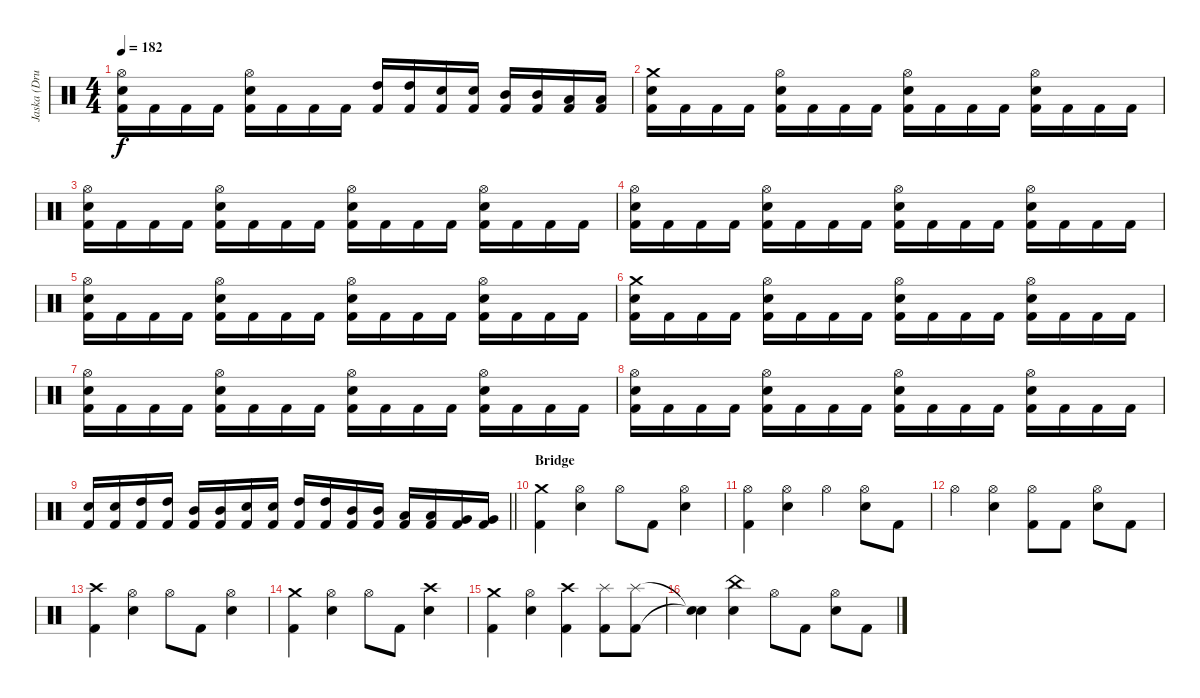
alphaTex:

\track ("Jaska (Drums)" "Jaska (Dru") {instrument percussion}
\staff {score}
\articulation defaults
\ts (4 4)
\tempo 182
\clef neutral
\ks c
("Hi-Hat (open)" "Electric Snare (hit)" "Kick (hit) 2").16{dy f} "Kick (hit) 2".16 "Kick (hit) 2".16 "Kick (hit) 2".16 ("Hi-Hat (open)" "Electric Snare (hit)" "Kick (hit) 2").16 "Kick (hit) 2".16 "Kick (hit) 2".16 "Kick (hit) 2".16 ("High Tom (hit)" "Kick (hit) 2").16 ("High Tom (hit)" "Kick (hit) 2").16 ("Electric Snare (hit)" "Kick (hit) 2").16 ("Electric Snare (hit)" "Kick (hit) 2").16 ("Mid Tom (hit)" "Kick (hit) 2").16 ("Mid Tom (hit)" "Kick (hit) 2").16 ("Low Tom (hit)" "Kick (hit) 2").16 ("Low Tom (hit)" "Kick (hit) 2").16 |
("Crash medium (hit)" "Electric Snare (hit)" "Kick (hit) 2").16 "Kick (hit) 2".16 "Kick (hit) 2".16 "Kick (hit) 2".16 ("Hi-Hat (open)" "Electric Snare (hit)" "Kick (hit) 2").16 "Kick (hit) 2".16 "Kick (hit) 2".16 "Kick (hit) 2".16 ("Hi-Hat (open)" "Electric Snare (hit)" "Kick (hit) 2").16 "Kick (hit) 2".16 "Kick (hit) 2".16 "Kick (hit) 2".16 ("Hi-Hat (open)" "Electric Snare (hit)" "Kick (hit) 2").16 "Kick (hit) 2".16 "Kick (hit) 2".16 "Kick (hit) 2".16 |
("Hi-Hat (open)" "Electric Snare (hit)" "Kick (hit) 2").16 "Kick (hit) 2".16 "Kick (hit) 2".16 "Kick (hit) 2".16 ("Hi-Hat (open)" "Electric Snare (hit)" "Kick (hit) 2").16 "Kick (hit) 2".16 "Kick (hit) 2".16 "Kick (hit) 2".16 ("Hi-Hat (open)" "Electric Snare (hit)" "Kick (hit) 2").16 "Kick (hit) 2".16 "Kick (hit) 2".16 "Kick (hit) 2".16 ("Hi-Hat (open)" "Electric Snare (hit)" "Kick (hit) 2").16 "Kick (hit) 2".16 "Kick (hit) 2".16 "Kick (hit) 2".16 |
("Hi-Hat (open)" "Electric Snare (hit)" "Kick (hit) 2").16 "Kick (hit) 2".16 "Kick (hit) 2".16 "Kick (hit) 2".16 ("Hi-Hat (open)" "Electric Snare (hit)" "Kick (hit) 2").16 "Kick (hit) 2".16 "Kick (hit) 2".16 "Kick (hit) 2".16 ("Hi-Hat (open)" "Electric Snare (hit)" "Kick (hit) 2").16 "Kick (hit) 2".16 "Kick (hit) 2".16 "Kick (hit) 2".16 ("Hi-Hat (open)" "Electric Snare (hit)" "Kick (hit) 2").16 "Kick (hit) 2".16 "Kick (hit) 2".16 "Kick (hit) 2".16 |
("Hi-Hat (open)" "Electric Snare (hit)" "Kick (hit) 2").16 "Kick (hit) 2".16 "Kick (hit) 2".16 "Kick (hit) 2".16 ("Hi-Hat (open)" "Electric Snare (hit)" "Kick (hit) 2").16 "Kick (hit) 2".16 "Kick (hit) 2".16 "Kick (hit) 2".16 ("Hi-Hat (open)" "Electric Snare (hit)" "Kick (hit) 2").16 "Kick (hit) 2".16 "Kick (hit) 2".16 "Kick (hit) 2".16 ("Hi-Hat (open)" "Electric Snare (hit)" "Kick (hit) 2").16 "Kick (hit) 2".16 "Kick (hit) 2".16 "Kick (hit) 2".16 |
("Crash medium (hit)" "Electric Snare (hit)" "Kick (hit) 2").16 "Kick (hit) 2".16 "Kick (hit) 2".16 "Kick (hit) 2".16 ("Hi-Hat (open)" "Electric Snare (hit)" "Kick (hit) 2").16 "Kick (hit) 2".16 "Kick (hit) 2".16 "Kick (hit) 2".16 ("Hi-Hat (open)" "Electric Snare (hit)" "Kick (hit) 2").16 "Kick (hit) 2".16 "Kick (hit) 2".16 "Kick (hit) 2".16 ("Hi-Hat (open)" "Electric Snare (hit)" "Kick (hit) 2").16 "Kick (hit) 2".16 "Kick (hit) 2".16 "Kick (hit) 2".16 |
("Hi-Hat (open)" "Electric Snare (hit)" "Kick (hit) 2").16 "Kick (hit) 2".16 "Kick (hit) 2".16 "Kick (hit) 2".16 ("Hi-Hat (open)" "Electric Snare (hit)" "Kick (hit) 2").16 "Kick (hit) 2".16 "Kick (hit) 2".16 "Kick (hit) 2".16 ("Hi-Hat (open)" "Electric Snare (hit)" "Kick (hit) 2").16 "Kick (hit) 2".16 "Kick (hit) 2".16 "Kick (hit) 2".16 ("Hi-Hat (open)" "Electric Snare (hit)" "Kick (hit) 2").16 "Kick (hit) 2".16 "Kick (hit) 2".16 "Kick (hit) 2".16 |
("Hi-Hat (open)" "Electric Snare (hit)" "Kick (hit) 2").16 "Kick (hit) 2".16 "Kick (hit) 2".16 "Kick (hit) 2".16 ("Hi-Hat (open)" "Electric Snare (hit)" "Kick (hit) 2").16 "Kick (hit) 2".16 "Kick (hit) 2".16 "Kick (hit) 2".16 ("Hi-Hat (open)" "Electric Snare (hit)" "Kick (hit) 2").16 "Kick (hit) 2".16 "Kick (hit) 2".16 "Kick (hit) 2".16 ("Hi-Hat (open)" "Electric Snare (hit)" "Kick (hit) 2").16 "Kick (hit) 2".16 "Kick (hit) 2".16 "Kick (hit) 2".16 |
\barLineRight lightlight
("Electric Snare (hit)" "Kick (hit) 2").16 ("Electric Snare (hit)" "Kick (hit) 2").16 ("High Tom (hit)" "Kick (hit) 2").16 ("High Tom (hit)" "Kick (hit) 2").16 ("Mid Tom (hit)" "Kick (hit) 2").16 ("Mid Tom (hit)" "Kick (hit) 2").16 ("Electric Snare (hit)" "Kick (hit) 2").16 ("Electric Snare (hit)" "Kick (hit) 2").16 ("High Tom (hit)" "Kick (hit) 2").16 ("High Tom (hit)" "Kick (hit) 2").16 ("Mid Tom (hit)" "Kick (hit) 2").16 ("Mid Tom (hit)" "Kick (hit) 2").16 ("Low Tom (hit)" "Kick (hit) 2").16 ("Low Tom (hit)" "Kick (hit) 2").16 ("Very Low Tom (hit)" "Kick (hit) 2").16 ("Very Low Tom (hit)" "Kick (hit) 2").16 |
\section ("" "Bridge")
("Crash medium (hit)" "Kick (hit) 2").4 ("Hi-Hat (open)" "Electric Snare (hit)").4 "Hi-Hat (open)".8 "Kick (hit) 2".8 ("Hi-Hat (open)" "Electric Snare (hit)").4 |
("Hi-Hat (open)" "Kick (hit) 2").4 ("Hi-Hat (open)" "Electric Snare (hit)").4 "Hi-Hat (open)".4 ("Hi-Hat (open)" "Electric Snare (hit)").8 "Kick (hit) 2".8 |
"Hi-Hat (open)".4 ("Hi-Hat (open)" "Electric Snare (hit)").4 ("Hi-Hat (open)" "Kick (hit) 2").8 "Kick (hit) 2".8 ("Hi-Hat (open)" "Electric Snare (hit)").8 "Kick (hit) 2".8 |
("Crash high (hit)" "Kick (hit) 2").4 ("Hi-Hat (open)" "Electric Snare (hit)").4 "Hi-Hat (open)".8 "Kick (hit) 2".8 ("Hi-Hat (open)" "Electric Snare (hit)").4 |
("Crash medium (hit)" "Kick (hit) 2").4 ("Hi-Hat (open)" "Electric Snare (hit)").4 "Hi-Hat (open)".8 "Kick (hit) 2".8 ("Crash high (hit)" "Electric Snare (hit)").4 |
("Crash medium (hit)" "Kick (hit) 2").4 ("Hi-Hat (open)" "Electric Snare (hit)").4 ("Crash high (hit)" "Kick (hit) 2").4 ("Splash (hit)" "Kick (hit) 2").8 ("Splash (hit)" "Kick (hit) 2").8 |
("Snare (hit)"{t} "Snare (hit)"{t}).4 ("China (hit)" "Electric Snare (hit)").4 "Hi-Hat (open)".8 "Kick (hit) 2".8 ("Hi-Hat (open)" "Electric Snare (hit)").8 "Kick (hit) 2".8
